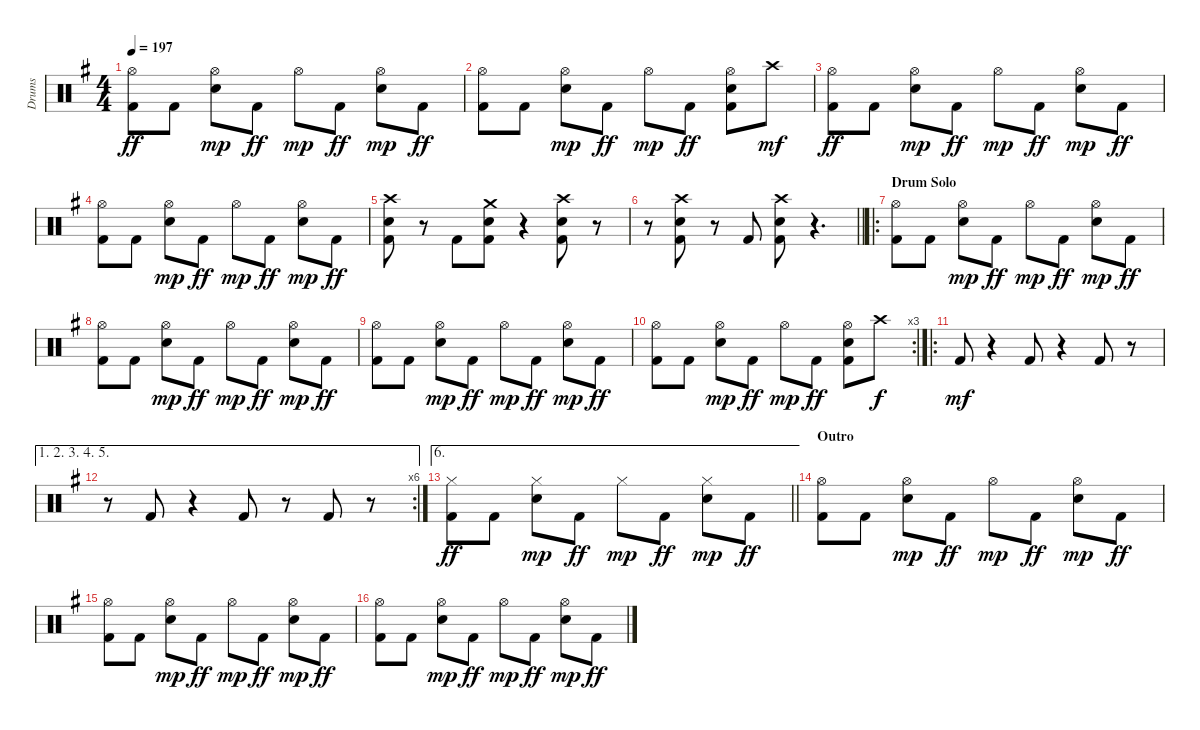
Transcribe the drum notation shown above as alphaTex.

\track ("Drums" "Drums") {instrument percussion}
\staff {score}
\articulation defaults
\ts (4 4)
\tempo 197
\clef neutral
\ks g
("Hi-Hat (open)" "Kick (hit) 2").8{dy ff} "Kick (hit) 2".8 ("Hi-Hat (open)" "Snare (hit) 2").8{dy mp} "Kick (hit) 2".8{dy ff} "Hi-Hat (open)".8{dy mp} "Kick (hit) 2".8{dy ff} ("Hi-Hat (open)" "Snare (hit) 2").8{dy mp} "Kick (hit) 2".8{dy ff} |
("Hi-Hat (open)" "Kick (hit) 2").8 "Kick (hit) 2".8 ("Hi-Hat (open)" "Snare (hit) 2").8{dy mp} "Kick (hit) 2".8{dy ff} "Hi-Hat (open)".8{dy mp} "Kick (hit) 2".8{dy ff} ("Hi-Hat (open)" "Snare (hit) 2" "Kick (hit) 2").8 "Crash high (hit)".8{dy mf} |
("Hi-Hat (open)" "Kick (hit) 2").8{dy ff} "Kick (hit) 2".8 ("Hi-Hat (open)" "Snare (hit) 2").8{dy mp} "Kick (hit) 2".8{dy ff} "Hi-Hat (open)".8{dy mp} "Kick (hit) 2".8{dy ff} ("Hi-Hat (open)" "Snare (hit) 2").8{dy mp} "Kick (hit) 2".8{dy ff} |
("Hi-Hat (open)" "Kick (hit) 2").8 "Kick (hit) 2".8 ("Hi-Hat (open)" "Snare (hit) 2").8{dy mp} "Kick (hit) 2".8{dy ff} "Hi-Hat (open)".8{dy mp} "Kick (hit) 2".8{dy ff} ("Hi-Hat (open)" "Snare (hit) 2").8{dy mp} "Kick (hit) 2".8{dy ff} |
("Crash high (hit)" "Snare (hit) 2" "Kick (hit) 2").8 r.8 "Kick (hit) 2".8 ("Crash medium (hit)" "Snare (hit) 2" "Kick (hit) 2").8 r.4 ("Crash high (hit)" "Snare (hit) 2" "Kick (hit) 2").8 r.8 |
\barLineRight lightlight
r.8 ("Crash high (hit)" "Snare (hit) 2" "Kick (hit) 2").8 r.8 "Kick (hit) 2".8 ("Crash high (hit)" "Snare (hit) 2" "Kick (hit) 2").8 r.4{d} |
\ro
\section ("" "Drum Solo")
("Hi-Hat (open)" "Kick (hit) 2").8 "Kick (hit) 2".8 ("Hi-Hat (open)" "Snare (hit) 2").8{dy mp} "Kick (hit) 2".8{dy ff} "Hi-Hat (open)".8{dy mp} "Kick (hit) 2".8{dy ff} ("Hi-Hat (open)" "Snare (hit) 2").8{dy mp} "Kick (hit) 2".8{dy ff} |
("Hi-Hat (open)" "Kick (hit) 2").8 "Kick (hit) 2".8 ("Hi-Hat (open)" "Snare (hit) 2").8{dy mp} "Kick (hit) 2".8{dy ff} "Hi-Hat (open)".8{dy mp} "Kick (hit) 2".8{dy ff} ("Hi-Hat (open)" "Snare (hit) 2").8{dy mp} "Kick (hit) 2".8{dy ff} |
("Hi-Hat (open)" "Kick (hit) 2").8 "Kick (hit) 2".8 ("Hi-Hat (open)" "Snare (hit) 2").8{dy mp} "Kick (hit) 2".8{dy ff} "Hi-Hat (open)".8{dy mp} "Kick (hit) 2".8{dy ff} ("Hi-Hat (open)" "Snare (hit) 2").8{dy mp} "Kick (hit) 2".8{dy ff} |
\rc 3
("Hi-Hat (open)" "Kick (hit) 2").8 "Kick (hit) 2".8 ("Hi-Hat (open)" "Snare (hit) 2").8{dy mp} "Kick (hit) 2".8{dy ff} "Hi-Hat (open)".8{dy mp} "Kick (hit) 2".8{dy ff} ("Hi-Hat (open)" "Snare (hit) 2" "Kick (hit) 2").8 "Crash high (hit)".8{dy f} |
\ro "Kick (hit) 2".8{dy mf}
r.4 "Kick (hit) 2".8 r.4 "Kick (hit) 2".8 r.8 |
\ae (1 2 3 4 5)
\rc 6
r.8 "Kick (hit) 2".8 r.4 "Kick (hit) 2".8 r.8 "Kick (hit) 2".8 r.8 |
\ae 6
\barLineRight lightlight
("Hi-Hat (closed)" "Kick (hit) 2").8{dy ff} "Kick (hit) 2".8 ("Hi-Hat (closed)" "Snare (hit) 2").8{dy mp} "Kick (hit) 2".8{dy ff} "Hi-Hat (closed)".8{dy mp} "Kick (hit) 2".8{dy ff} ("Hi-Hat (closed)" "Snare (hit) 2").8{dy mp} "Kick (hit) 2".8{dy ff} |
\section ("" "Outro")
("Hi-Hat (open)" "Kick (hit) 2").8 "Kick (hit) 2".8 ("Hi-Hat (open)" "Snare (hit) 2").8{dy mp} "Kick (hit) 2".8{dy ff} "Hi-Hat (open)".8{dy mp} "Kick (hit) 2".8{dy ff} ("Hi-Hat (open)" "Snare (hit) 2").8{dy mp} "Kick (hit) 2".8{dy ff} |
("Hi-Hat (open)" "Kick (hit) 2").8 "Kick (hit) 2".8 ("Hi-Hat (open)" "Snare (hit) 2").8{dy mp} "Kick (hit) 2".8{dy ff} "Hi-Hat (open)".8{dy mp} "Kick (hit) 2".8{dy ff} ("Hi-Hat (open)" "Snare (hit) 2").8{dy mp} "Kick (hit) 2".8{dy ff} |
("Hi-Hat (open)" "Kick (hit) 2").8 "Kick (hit) 2".8 ("Hi-Hat (open)" "Snare (hit) 2").8{dy mp} "Kick (hit) 2".8{dy ff} "Hi-Hat (open)".8{dy mp} "Kick (hit) 2".8{dy ff} ("Hi-Hat (open)" "Snare (hit) 2").8{dy mp} "Kick (hit) 2".8{dy ff}
